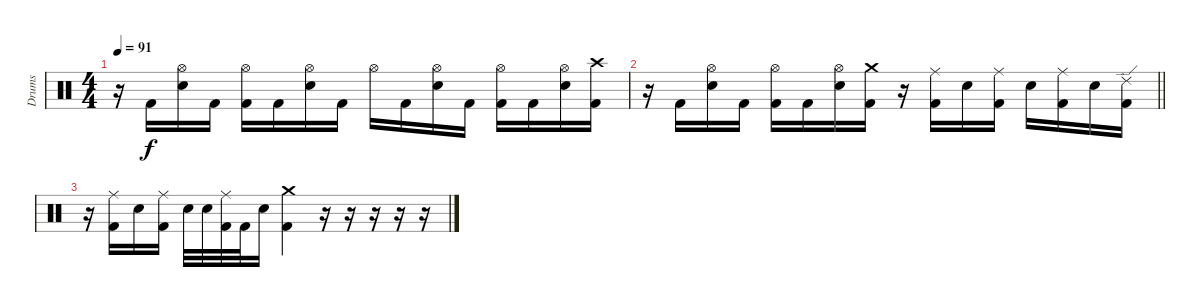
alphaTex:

\track ("Drums" "Drums") {instrument percussion}
\staff {score}
\articulation defaults
\ts (4 4)
\tempo 91
\clef neutral
\ks c
r.16{dy f} "Kick (hit) 2".16 ("Hi-Hat (open)" "Snare (hit) 2").16 "Kick (hit) 2".16 ("Hi-Hat (open)" "Kick (hit) 2").16 "Kick (hit) 2".16 ("Hi-Hat (open)" "Snare (hit) 2").16 "Kick (hit) 2".16 "Hi-Hat (open)".16 "Kick (hit) 2".16 ("Hi-Hat (open)" "Snare (hit) 2").16 "Kick (hit) 2".16 ("Hi-Hat (open)" "Kick (hit) 2").16 "Kick (hit) 2".16 ("Hi-Hat (open)" "Snare (hit) 2").16 ("Crash high (hit)" "Kick (hit) 2").16 |
\barLineRight lightlight
r.16 "Kick (hit) 2".16 ("Hi-Hat (open)" "Snare (hit) 2").16 "Kick (hit) 2".16 ("Hi-Hat (open)" "Kick (hit) 2").16 "Kick (hit) 2".16 ("Hi-Hat (open)" "Snare (hit) 2").16 ("Crash medium (hit)" "Kick (hit) 2").16 r.16 ("Ride (middle)" "Kick (hit) 2").16 "Snare (hit) 2".16 ("Ride (middle)" "Kick (hit) 2").16 "Snare (hit) 2".16 ("Ride (middle)" "Kick (hit) 2").16 "Snare (hit) 2".16 ("Ride (edge) 2" "Kick (hit) 2").16 |
r.16 ("Ride (middle)" "Kick (hit) 2").16 "Snare (hit) 2".16 ("Ride (middle)" "Kick (hit) 2").16 "Snare (hit) 2".32 "Snare (hit) 2".32 ("Ride (middle)" "Kick (hit) 2").32 "Kick (hit) 2".32 "Snare (hit) 2".16 ("Crash medium (hit)" "Kick (hit) 2").4 r.16 r.16 r.16 r.16 r.16
